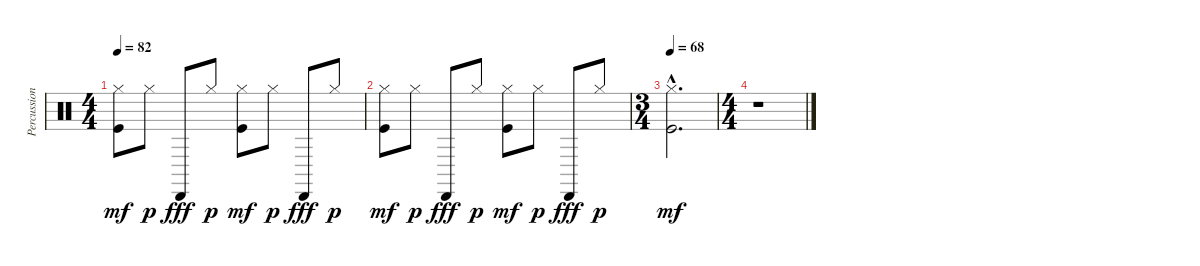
\track ("Percussions" "Percussion") {instrument percussion}
\staff {score}
\articulation defaults
\ts (4 4)
\tempo 82
\clef neutral
\ks c
("Hi-Hat (closed)" "Kick (hit)").8{dy mf} "Hi-Hat (closed)".8{dy p} "Cabasa (hit)".8{dy fff} "Hi-Hat (closed)".8{dy p} ("Hi-Hat (closed)" "Kick (hit)").8{dy mf} "Hi-Hat (closed)".8{dy p} "Cabasa (hit)".8{dy fff} "Hi-Hat (closed)".8{dy p} |
("Hi-Hat (closed)" "Kick (hit)").8{dy mf} "Hi-Hat (closed)".8{dy p} "Cabasa (hit)".8{dy fff} "Hi-Hat (closed)".8{dy p} ("Hi-Hat (closed)" "Kick (hit)").8{dy mf} "Hi-Hat (closed)".8{dy p} "Cabasa (hit)".8{dy fff} "Hi-Hat (closed)".8{dy p} |
\ts (3 4)
\tempo 68
("Hi-Hat (closed)"{hac} "Kick (hit)"{hac}).2{d dy mf} |
\ts (4 4)
r.1
